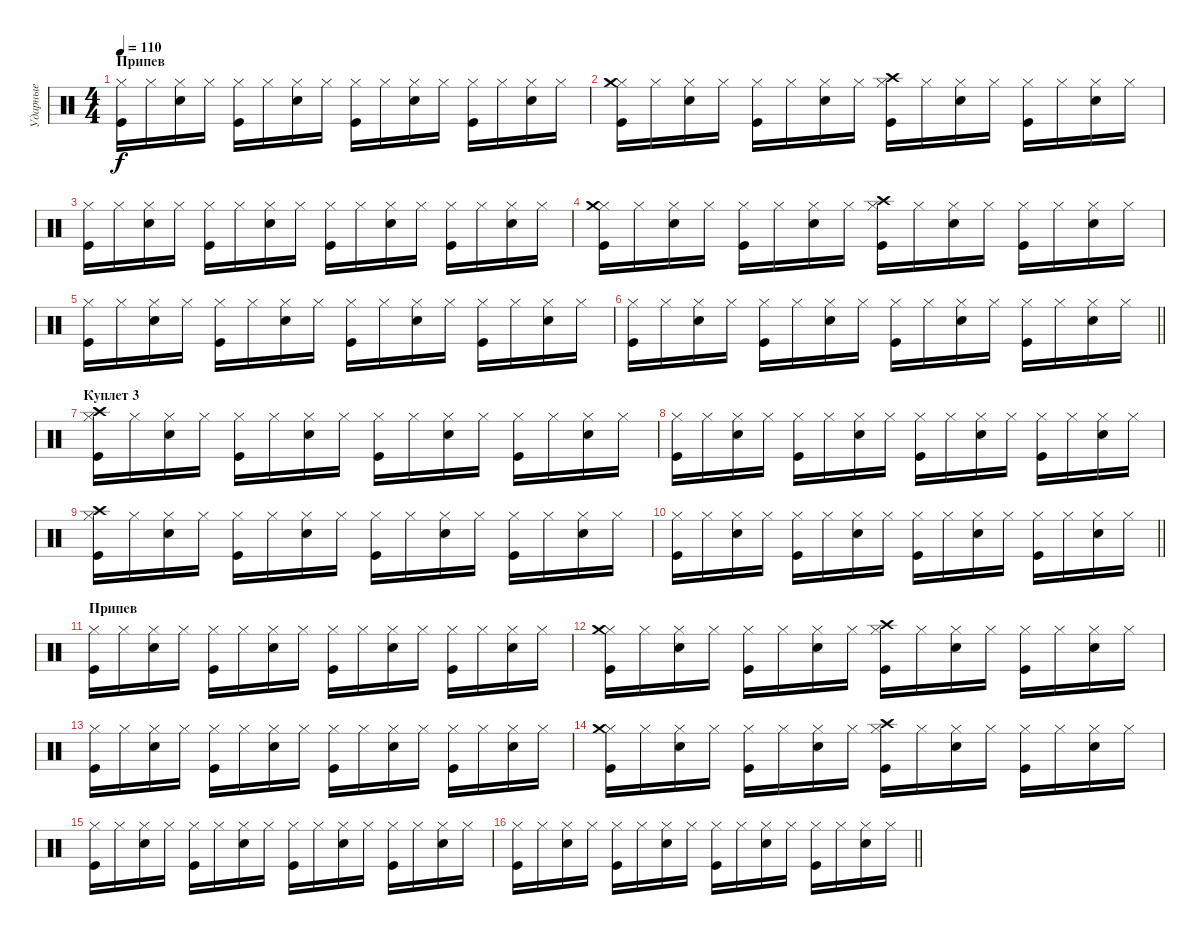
\track ("Ударные" "Ударные") {instrument percussion}
\staff {score}
\articulation defaults
\ts (4 4)
\section ("" "Припев")
\tempo 110
\clef neutral
\ks c
("Kick (hit)" "Hi-Hat (closed)").16{dy f} "Hi-Hat (closed)".16 ("Snare (hit) 2" "Hi-Hat (closed)").16 "Hi-Hat (closed)".16 ("Kick (hit)" "Hi-Hat (closed)").16 "Hi-Hat (closed)".16 ("Snare (hit) 2" "Hi-Hat (closed)").16 "Hi-Hat (closed)".16 ("Kick (hit)" "Hi-Hat (closed)").16 "Hi-Hat (closed)".16 ("Snare (hit) 2" "Hi-Hat (closed)").16 "Hi-Hat (closed)".16 ("Kick (hit)" "Hi-Hat (closed)").16 "Hi-Hat (closed)".16 ("Snare (hit) 2" "Hi-Hat (closed)").16 "Hi-Hat (closed)".16 |
("Kick (hit)" "Hi-Hat (closed)" "Crash medium (hit)").16 "Hi-Hat (closed)".16 ("Snare (hit) 2" "Hi-Hat (closed)").16 "Hi-Hat (closed)".16 ("Kick (hit)" "Hi-Hat (closed)").16 "Hi-Hat (closed)".16 ("Snare (hit) 2" "Hi-Hat (closed)").16 "Hi-Hat (closed)".16 ("Kick (hit)" "Hi-Hat (closed)" "Crash high (hit)").16 "Hi-Hat (closed)".16 ("Snare (hit) 2" "Hi-Hat (closed)").16 "Hi-Hat (closed)".16 ("Kick (hit)" "Hi-Hat (closed)").16 "Hi-Hat (closed)".16 ("Snare (hit) 2" "Hi-Hat (closed)").16 "Hi-Hat (closed)".16 |
("Kick (hit)" "Hi-Hat (closed)").16 "Hi-Hat (closed)".16 ("Snare (hit) 2" "Hi-Hat (closed)").16 "Hi-Hat (closed)".16 ("Kick (hit)" "Hi-Hat (closed)").16 "Hi-Hat (closed)".16 ("Snare (hit) 2" "Hi-Hat (closed)").16 "Hi-Hat (closed)".16 ("Kick (hit)" "Hi-Hat (closed)").16 "Hi-Hat (closed)".16 ("Snare (hit) 2" "Hi-Hat (closed)").16 "Hi-Hat (closed)".16 ("Kick (hit)" "Hi-Hat (closed)").16 "Hi-Hat (closed)".16 ("Snare (hit) 2" "Hi-Hat (closed)").16 "Hi-Hat (closed)".16 |
("Kick (hit)" "Hi-Hat (closed)" "Crash medium (hit)").16 "Hi-Hat (closed)".16 ("Snare (hit) 2" "Hi-Hat (closed)").16 "Hi-Hat (closed)".16 ("Kick (hit)" "Hi-Hat (closed)").16 "Hi-Hat (closed)".16 ("Snare (hit) 2" "Hi-Hat (closed)").16 "Hi-Hat (closed)".16 ("Kick (hit)" "Hi-Hat (closed)" "Crash high (hit)").16 "Hi-Hat (closed)".16 ("Snare (hit) 2" "Hi-Hat (closed)").16 "Hi-Hat (closed)".16 ("Kick (hit)" "Hi-Hat (closed)").16 "Hi-Hat (closed)".16 ("Snare (hit) 2" "Hi-Hat (closed)").16 "Hi-Hat (closed)".16 |
("Kick (hit)" "Hi-Hat (closed)").16 "Hi-Hat (closed)".16 ("Snare (hit) 2" "Hi-Hat (closed)").16 "Hi-Hat (closed)".16 ("Kick (hit)" "Hi-Hat (closed)").16 "Hi-Hat (closed)".16 ("Snare (hit) 2" "Hi-Hat (closed)").16 "Hi-Hat (closed)".16 ("Kick (hit)" "Hi-Hat (closed)").16 "Hi-Hat (closed)".16 ("Snare (hit) 2" "Hi-Hat (closed)").16 "Hi-Hat (closed)".16 ("Kick (hit)" "Hi-Hat (closed)").16 "Hi-Hat (closed)".16 ("Snare (hit) 2" "Hi-Hat (closed)").16 "Hi-Hat (closed)".16 |
\barLineRight lightlight
("Kick (hit)" "Hi-Hat (closed)").16 "Hi-Hat (closed)".16 ("Snare (hit) 2" "Hi-Hat (closed)").16 "Hi-Hat (closed)".16 ("Kick (hit)" "Hi-Hat (closed)").16 "Hi-Hat (closed)".16 ("Snare (hit) 2" "Hi-Hat (closed)").16 "Hi-Hat (closed)".16 ("Kick (hit)" "Hi-Hat (closed)").16 "Hi-Hat (closed)".16 ("Snare (hit) 2" "Hi-Hat (closed)").16 "Hi-Hat (closed)".16 ("Kick (hit)" "Hi-Hat (closed)").16 "Hi-Hat (closed)".16 ("Snare (hit) 2" "Hi-Hat (closed)").16 "Hi-Hat (closed)".16 |
\section ("" "Куплет 3")
("Kick (hit)" "Hi-Hat (closed)" "Crash high (hit)").16 "Hi-Hat (closed)".16 ("Snare (hit) 2" "Hi-Hat (closed)").16 "Hi-Hat (closed)".16 ("Kick (hit)" "Hi-Hat (closed)").16 "Hi-Hat (closed)".16 ("Snare (hit) 2" "Hi-Hat (closed)").16 "Hi-Hat (closed)".16 ("Kick (hit)" "Hi-Hat (closed)").16 "Hi-Hat (closed)".16 ("Snare (hit) 2" "Hi-Hat (closed)").16 "Hi-Hat (closed)".16 ("Kick (hit)" "Hi-Hat (closed)").16 "Hi-Hat (closed)".16 ("Snare (hit) 2" "Hi-Hat (closed)").16 "Hi-Hat (closed)".16 |
("Kick (hit)" "Hi-Hat (closed)").16 "Hi-Hat (closed)".16 ("Snare (hit) 2" "Hi-Hat (closed)").16 "Hi-Hat (closed)".16 ("Kick (hit)" "Hi-Hat (closed)").16 "Hi-Hat (closed)".16 ("Snare (hit) 2" "Hi-Hat (closed)").16 "Hi-Hat (closed)".16 ("Kick (hit)" "Hi-Hat (closed)").16 "Hi-Hat (closed)".16 ("Snare (hit) 2" "Hi-Hat (closed)").16 "Hi-Hat (closed)".16 ("Kick (hit)" "Hi-Hat (closed)").16 "Hi-Hat (closed)".16 ("Snare (hit) 2" "Hi-Hat (closed)").16 "Hi-Hat (closed)".16 |
("Kick (hit)" "Hi-Hat (closed)" "Crash high (hit)").16 "Hi-Hat (closed)".16 ("Snare (hit) 2" "Hi-Hat (closed)").16 "Hi-Hat (closed)".16 ("Kick (hit)" "Hi-Hat (closed)").16 "Hi-Hat (closed)".16 ("Snare (hit) 2" "Hi-Hat (closed)").16 "Hi-Hat (closed)".16 ("Kick (hit)" "Hi-Hat (closed)").16 "Hi-Hat (closed)".16 ("Snare (hit) 2" "Hi-Hat (closed)").16 "Hi-Hat (closed)".16 ("Kick (hit)" "Hi-Hat (closed)").16 "Hi-Hat (closed)".16 ("Snare (hit) 2" "Hi-Hat (closed)").16 "Hi-Hat (closed)".16 |
\barLineRight lightlight
("Kick (hit)" "Hi-Hat (closed)").16 "Hi-Hat (closed)".16 ("Snare (hit) 2" "Hi-Hat (closed)").16 "Hi-Hat (closed)".16 ("Kick (hit)" "Hi-Hat (closed)").16 "Hi-Hat (closed)".16 ("Snare (hit) 2" "Hi-Hat (closed)").16 "Hi-Hat (closed)".16 ("Kick (hit)" "Hi-Hat (closed)").16 "Hi-Hat (closed)".16 ("Snare (hit) 2" "Hi-Hat (closed)").16 "Hi-Hat (closed)".16 ("Kick (hit)" "Hi-Hat (closed)").16 "Hi-Hat (closed)".16 ("Snare (hit) 2" "Hi-Hat (closed)").16 "Hi-Hat (closed)".16 |
\section ("" "Припев")
("Kick (hit)" "Hi-Hat (closed)").16 "Hi-Hat (closed)".16 ("Snare (hit) 2" "Hi-Hat (closed)").16 "Hi-Hat (closed)".16 ("Kick (hit)" "Hi-Hat (closed)").16 "Hi-Hat (closed)".16 ("Snare (hit) 2" "Hi-Hat (closed)").16 "Hi-Hat (closed)".16 ("Kick (hit)" "Hi-Hat (closed)").16 "Hi-Hat (closed)".16 ("Snare (hit) 2" "Hi-Hat (closed)").16 "Hi-Hat (closed)".16 ("Kick (hit)" "Hi-Hat (closed)").16 "Hi-Hat (closed)".16 ("Snare (hit) 2" "Hi-Hat (closed)").16 "Hi-Hat (closed)".16 |
("Kick (hit)" "Hi-Hat (closed)" "Crash medium (hit)").16 "Hi-Hat (closed)".16 ("Snare (hit) 2" "Hi-Hat (closed)").16 "Hi-Hat (closed)".16 ("Kick (hit)" "Hi-Hat (closed)").16 "Hi-Hat (closed)".16 ("Snare (hit) 2" "Hi-Hat (closed)").16 "Hi-Hat (closed)".16 ("Kick (hit)" "Hi-Hat (closed)" "Crash high (hit)").16 "Hi-Hat (closed)".16 ("Snare (hit) 2" "Hi-Hat (closed)").16 "Hi-Hat (closed)".16 ("Kick (hit)" "Hi-Hat (closed)").16 "Hi-Hat (closed)".16 ("Snare (hit) 2" "Hi-Hat (closed)").16 "Hi-Hat (closed)".16 |
("Kick (hit)" "Hi-Hat (closed)").16 "Hi-Hat (closed)".16 ("Snare (hit) 2" "Hi-Hat (closed)").16 "Hi-Hat (closed)".16 ("Kick (hit)" "Hi-Hat (closed)").16 "Hi-Hat (closed)".16 ("Snare (hit) 2" "Hi-Hat (closed)").16 "Hi-Hat (closed)".16 ("Kick (hit)" "Hi-Hat (closed)").16 "Hi-Hat (closed)".16 ("Snare (hit) 2" "Hi-Hat (closed)").16 "Hi-Hat (closed)".16 ("Kick (hit)" "Hi-Hat (closed)").16 "Hi-Hat (closed)".16 ("Snare (hit) 2" "Hi-Hat (closed)").16 "Hi-Hat (closed)".16 |
("Kick (hit)" "Hi-Hat (closed)" "Crash medium (hit)").16 "Hi-Hat (closed)".16 ("Snare (hit) 2" "Hi-Hat (closed)").16 "Hi-Hat (closed)".16 ("Kick (hit)" "Hi-Hat (closed)").16 "Hi-Hat (closed)".16 ("Snare (hit) 2" "Hi-Hat (closed)").16 "Hi-Hat (closed)".16 ("Kick (hit)" "Hi-Hat (closed)" "Crash high (hit)").16 "Hi-Hat (closed)".16 ("Snare (hit) 2" "Hi-Hat (closed)").16 "Hi-Hat (closed)".16 ("Kick (hit)" "Hi-Hat (closed)").16 "Hi-Hat (closed)".16 ("Snare (hit) 2" "Hi-Hat (closed)").16 "Hi-Hat (closed)".16 |
("Kick (hit)" "Hi-Hat (closed)").16 "Hi-Hat (closed)".16 ("Snare (hit) 2" "Hi-Hat (closed)").16 "Hi-Hat (closed)".16 ("Kick (hit)" "Hi-Hat (closed)").16 "Hi-Hat (closed)".16 ("Snare (hit) 2" "Hi-Hat (closed)").16 "Hi-Hat (closed)".16 ("Kick (hit)" "Hi-Hat (closed)").16 "Hi-Hat (closed)".16 ("Snare (hit) 2" "Hi-Hat (closed)").16 "Hi-Hat (closed)".16 ("Kick (hit)" "Hi-Hat (closed)").16 "Hi-Hat (closed)".16 ("Snare (hit) 2" "Hi-Hat (closed)").16 "Hi-Hat (closed)".16 |
\barLineRight lightlight
("Kick (hit)" "Hi-Hat (closed)").16 "Hi-Hat (closed)".16 ("Snare (hit) 2" "Hi-Hat (closed)").16 "Hi-Hat (closed)".16 ("Kick (hit)" "Hi-Hat (closed)").16 "Hi-Hat (closed)".16 ("Snare (hit) 2" "Hi-Hat (closed)").16 "Hi-Hat (closed)".16 ("Kick (hit)" "Hi-Hat (closed)").16 "Hi-Hat (closed)".16 ("Snare (hit) 2" "Hi-Hat (closed)").16 "Hi-Hat (closed)".16 ("Kick (hit)" "Hi-Hat (closed)").16 "Hi-Hat (closed)".16 ("Snare (hit) 2" "Hi-Hat (closed)").16 "Hi-Hat (closed)".16
